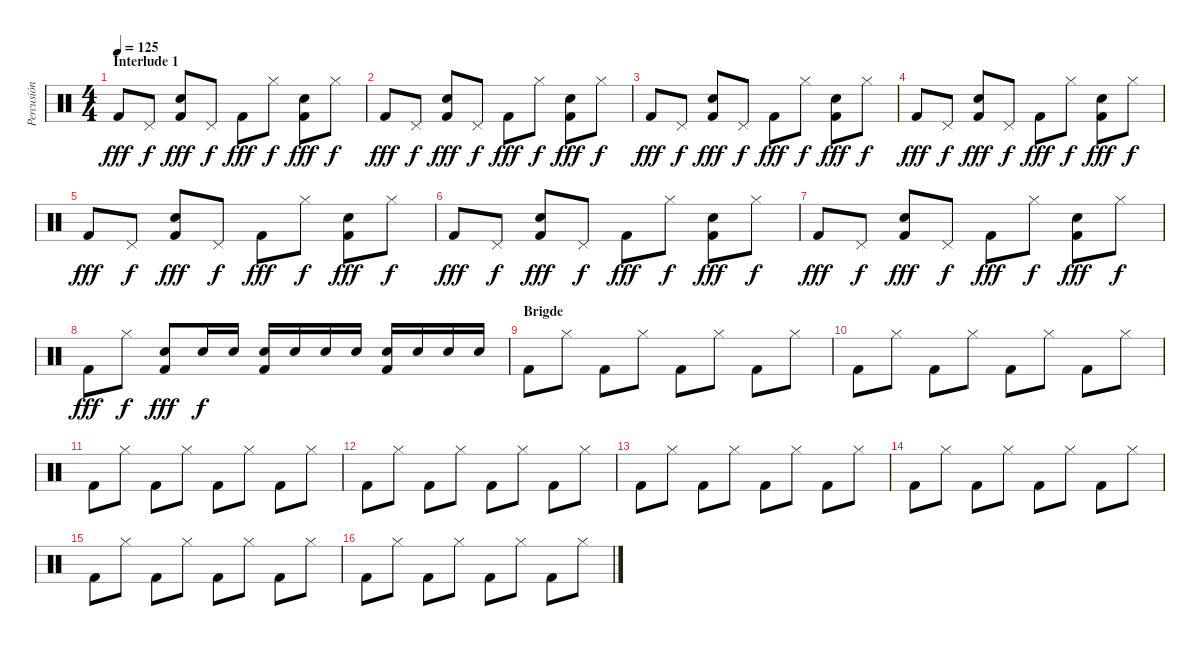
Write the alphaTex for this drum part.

\track ("Percusión" "Percusión") {instrument percussion}
\staff {score}
\articulation defaults
\ts (4 4)
\section ("" "Interlude 1")
\tempo 125
\clef neutral
\ks c "Kick (hit) 2".8{dy fff} "Pedal Hi-Hat (hit)".8{dy f}
("Electric Snare (hit)" "Kick (hit) 2").8{dy fff} "Pedal Hi-Hat (hit)".8{dy f} "Kick (hit) 2".8{dy fff} "Hi-Hat (closed)".8{dy f} ("Electric Snare (hit)" "Kick (hit) 2").8{dy fff} "Hi-Hat (closed)".8{dy f} |
"Kick (hit) 2".8{dy fff} "Pedal Hi-Hat (hit)".8{dy f} ("Electric Snare (hit)" "Kick (hit) 2").8{dy fff} "Pedal Hi-Hat (hit)".8{dy f} "Kick (hit) 2".8{dy fff} "Hi-Hat (closed)".8{dy f} ("Electric Snare (hit)" "Kick (hit) 2").8{dy fff} "Hi-Hat (closed)".8{dy f} |
"Kick (hit) 2".8{dy fff} "Pedal Hi-Hat (hit)".8{dy f} ("Electric Snare (hit)" "Kick (hit) 2").8{dy fff} "Pedal Hi-Hat (hit)".8{dy f} "Kick (hit) 2".8{dy fff} "Hi-Hat (closed)".8{dy f} ("Electric Snare (hit)" "Kick (hit) 2").8{dy fff} "Hi-Hat (closed)".8{dy f} |
"Kick (hit) 2".8{dy fff} "Pedal Hi-Hat (hit)".8{dy f} ("Electric Snare (hit)" "Kick (hit) 2").8{dy fff} "Pedal Hi-Hat (hit)".8{dy f} "Kick (hit) 2".8{dy fff} "Hi-Hat (closed)".8{dy f} ("Electric Snare (hit)" "Kick (hit) 2").8{dy fff} "Hi-Hat (closed)".8{dy f} |
"Kick (hit) 2".8{dy fff} "Pedal Hi-Hat (hit)".8{dy f} ("Electric Snare (hit)" "Kick (hit) 2").8{dy fff} "Pedal Hi-Hat (hit)".8{dy f} "Kick (hit) 2".8{dy fff} "Hi-Hat (closed)".8{dy f} ("Electric Snare (hit)" "Kick (hit) 2").8{dy fff} "Hi-Hat (closed)".8{dy f} |
"Kick (hit) 2".8{dy fff} "Pedal Hi-Hat (hit)".8{dy f} ("Electric Snare (hit)" "Kick (hit) 2").8{dy fff} "Pedal Hi-Hat (hit)".8{dy f} "Kick (hit) 2".8{dy fff} "Hi-Hat (closed)".8{dy f} ("Electric Snare (hit)" "Kick (hit) 2").8{dy fff} "Hi-Hat (closed)".8{dy f} |
"Kick (hit) 2".8{dy fff} "Pedal Hi-Hat (hit)".8{dy f} ("Electric Snare (hit)" "Kick (hit) 2").8{dy fff} "Pedal Hi-Hat (hit)".8{dy f} "Kick (hit) 2".8{dy fff} "Hi-Hat (closed)".8{dy f} ("Electric Snare (hit)" "Kick (hit) 2").8{dy fff} "Hi-Hat (closed)".8{dy f} |
"Kick (hit) 2".8{dy fff} "Hi-Hat (closed)".8{dy f} ("Electric Snare (hit)" "Kick (hit) 2").8{dy fff volume 7} "Electric Snare (hit)".16{dy f volume 13} "Electric Snare (hit)".16 ("Electric Snare (hit)" "Kick (hit) 2").16 "Electric Snare (hit)".16 "Electric Snare (hit)".16 "Electric Snare (hit)".16 ("Electric Snare (hit)" "Kick (hit) 2").16 "Electric Snare (hit)".16 "Electric Snare (hit)".16 "Electric Snare (hit)".16 |
\section ("" "Brigde")
"Kick (hit) 2".8 "Hi-Hat (closed)".8 "Kick (hit) 2".8 "Hi-Hat (closed)".8 "Kick (hit) 2".8 "Hi-Hat (closed)".8 "Kick (hit) 2".8 "Hi-Hat (closed)".8 |
"Kick (hit) 2".8 "Hi-Hat (closed)".8 "Kick (hit) 2".8 "Hi-Hat (closed)".8 "Kick (hit) 2".8 "Hi-Hat (closed)".8 "Kick (hit) 2".8 "Hi-Hat (closed)".8 |
"Kick (hit) 2".8 "Hi-Hat (closed)".8 "Kick (hit) 2".8 "Hi-Hat (closed)".8 "Kick (hit) 2".8 "Hi-Hat (closed)".8 "Kick (hit) 2".8 "Hi-Hat (closed)".8 |
"Kick (hit) 2".8 "Hi-Hat (closed)".8 "Kick (hit) 2".8 "Hi-Hat (closed)".8 "Kick (hit) 2".8 "Hi-Hat (closed)".8 "Kick (hit) 2".8 "Hi-Hat (closed)".8 |
"Kick (hit) 2".8 "Hi-Hat (closed)".8 "Kick (hit) 2".8 "Hi-Hat (closed)".8 "Kick (hit) 2".8 "Hi-Hat (closed)".8 "Kick (hit) 2".8 "Hi-Hat (closed)".8 |
"Kick (hit) 2".8 "Hi-Hat (closed)".8 "Kick (hit) 2".8 "Hi-Hat (closed)".8 "Kick (hit) 2".8 "Hi-Hat (closed)".8 "Kick (hit) 2".8 "Hi-Hat (closed)".8 |
"Kick (hit) 2".8 "Hi-Hat (closed)".8 "Kick (hit) 2".8 "Hi-Hat (closed)".8 "Kick (hit) 2".8 "Hi-Hat (closed)".8 "Kick (hit) 2".8 "Hi-Hat (closed)".8 |
"Kick (hit) 2".8 "Hi-Hat (closed)".8 "Kick (hit) 2".8 "Hi-Hat (closed)".8 "Kick (hit) 2".8 "Hi-Hat (closed)".8 "Kick (hit) 2".8 "Hi-Hat (closed)".8
